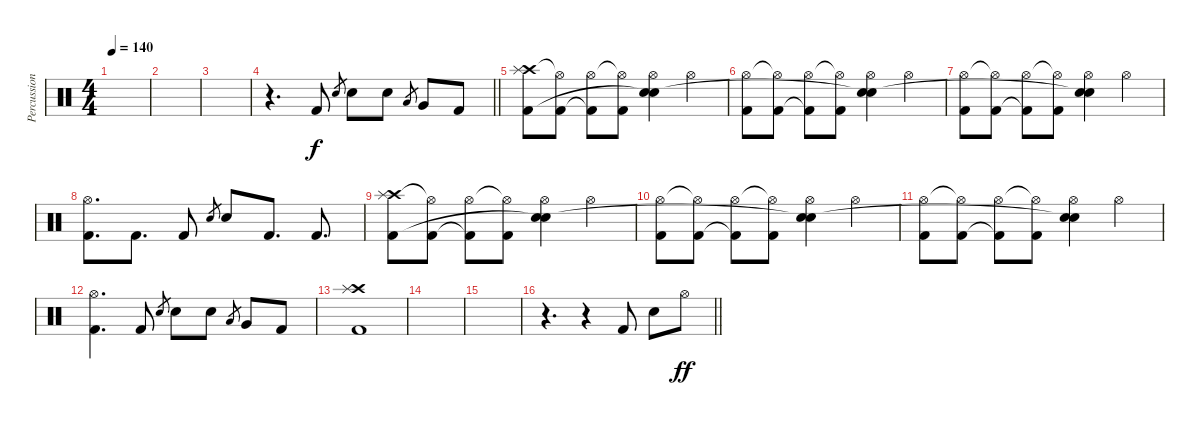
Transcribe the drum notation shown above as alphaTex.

\track ("Percussion" "Percussion") {instrument percussion}
\staff {score}
\articulation defaults
\ts (4 4)
\tempo 140
\clef neutral
\ks c
|
|
|
\barLineRight lightlight
r.4{d} "Kick (hit) 2".8 "Electric Snare (hit)".8{gr} "Electric Snare (hit)".8 "Electric Snare (hit)".8 "Low Floor Tom (hit)".8{gr} "Very Low Tom (hit)".8 "Kick (hit) 2".8 |
("Crash high (hit)" "Splash (hit)" "Kick (hit) 2").8 ("Hi-Hat (open)"{t} "Kick (hit) 2").8 ("Hi-Hat (open)" "Kick (hit) 2"{t}).8 ("Hi-Hat (open)"{t} "Kick (hit) 2").8 ("Hi-Hat (open)" "Electric Snare (hit)" "Snare (hit)"{t}).4 "Hi-Hat (open)".4 |
("Hi-Hat (open)" "Kick (hit) 2").8 ("Hi-Hat (open)"{t} "Kick (hit) 2").8 ("Hi-Hat (open)" "Kick (hit) 2"{t}).8 ("Hi-Hat (open)"{t} "Kick (hit) 2").8 ("Hi-Hat (open)" "Electric Snare (hit)" "Snare (hit)"{t}).4 "Hi-Hat (open)".4 |
("Hi-Hat (open)" "Kick (hit) 2").8 ("Hi-Hat (open)"{t} "Kick (hit) 2").8 ("Hi-Hat (open)" "Kick (hit) 2"{t}).8 ("Hi-Hat (open)"{t} "Kick (hit) 2").8 ("Hi-Hat (open)" "Electric Snare (hit)" "Snare (hit)"{t}).4 "Hi-Hat (open)".4 |
("Hi-Hat (open)" "Kick (hit) 2").8{d} "Kick (hit) 2".8{d} "Kick (hit) 2".8 "Electric Snare (hit)".8{gr} "Electric Snare (hit)".8 "Kick (hit) 2".8{d} "Kick (hit) 2".8{d} |
("Crash high (hit)" "Splash (hit)" "Kick (hit) 2").8 ("Hi-Hat (open)"{t} "Kick (hit) 2").8 ("Hi-Hat (open)" "Kick (hit) 2"{t}).8 ("Hi-Hat (open)"{t} "Kick (hit) 2").8 ("Hi-Hat (open)" "Electric Snare (hit)" "Snare (hit)"{t}).4 "Hi-Hat (open)".4 |
("Hi-Hat (open)" "Kick (hit) 2").8 ("Hi-Hat (open)"{t} "Kick (hit) 2").8 ("Hi-Hat (open)" "Kick (hit) 2"{t}).8 ("Hi-Hat (open)"{t} "Kick (hit) 2").8 ("Hi-Hat (open)" "Electric Snare (hit)" "Snare (hit)"{t}).4 "Hi-Hat (open)".4 |
("Hi-Hat (open)" "Kick (hit) 2").8 ("Hi-Hat (open)"{t} "Kick (hit) 2").8 ("Hi-Hat (open)" "Kick (hit) 2"{t}).8 ("Hi-Hat (open)"{t} "Kick (hit) 2").8 ("Hi-Hat (open)" "Electric Snare (hit)" "Snare (hit)"{t}).4 "Hi-Hat (open)".4 |
("Hi-Hat (open)" "Kick (hit) 2").4{d} "Kick (hit) 2".8 "Electric Snare (hit)".8{gr} "Electric Snare (hit)".8 "Electric Snare (hit)".8 "Low Floor Tom (hit)".8{gr} "Very Low Tom (hit)".8 "Kick (hit) 2".8 |
("Crash high (hit)" "Splash (hit)" "Kick (hit) 2").1 |
|
|
\barLineRight lightlight
r.4{d} r.4 "Kick (hit) 2".8 "Electric Snare (hit)".8 "Hi-Hat (open)".8{dy ff}
